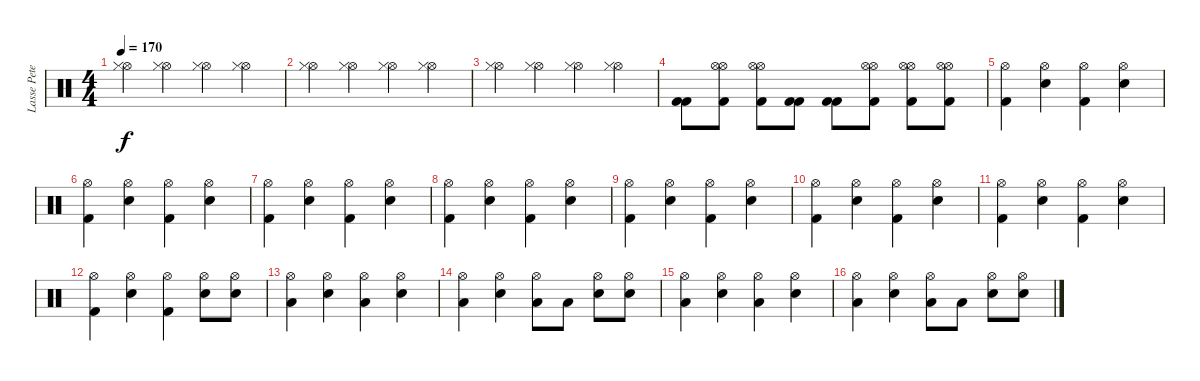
\track ("Lasse Peterson" "Lasse Pete") {instrument percussion}
\staff {score}
\articulation defaults
\ts (4 4)
\tempo 170
\clef neutral
\ks c
("Hi-Hat (open)" "Hi-Hat (closed)").4{dy f} ("Hi-Hat (open)" "Hi-Hat (closed)").4 ("Hi-Hat (open)" "Hi-Hat (closed)").4 ("Hi-Hat (open)" "Hi-Hat (closed)").4 |
("Hi-Hat (open)" "Hi-Hat (closed)").4 ("Hi-Hat (open)" "Hi-Hat (closed)").4 ("Hi-Hat (open)" "Hi-Hat (closed)").4 ("Hi-Hat (open)" "Hi-Hat (closed)").4 |
("Hi-Hat (open)" "Hi-Hat (closed)").4 ("Hi-Hat (open)" "Hi-Hat (closed)").4 ("Hi-Hat (open)" "Hi-Hat (closed)").4 ("Hi-Hat (open)" "Hi-Hat (closed)").4 |
("Kick (hit) 2" "Kick (hit) 2").8 ("Hi-Hat (open)" "Hi-Hat (open)" "Kick (hit) 2").8 ("Hi-Hat (open)" "Hi-Hat (open)" "Kick (hit) 2").8 ("Kick (hit) 2" "Kick (hit) 2").8 ("Kick (hit) 2" "Kick (hit) 2").8 ("Hi-Hat (open)" "Hi-Hat (open)" "Kick (hit) 2").8 ("Hi-Hat (open)" "Hi-Hat (open)" "Kick (hit) 2").8 ("Hi-Hat (open)" "Hi-Hat (open)" "Kick (hit) 2").8 |
("Hi-Hat (open)" "Kick (hit) 2").4 ("Hi-Hat (open)" "Snare (hit) 2").4 ("Hi-Hat (open)" "Kick (hit) 2").4 ("Hi-Hat (open)" "Snare (hit) 2").4 |
("Hi-Hat (open)" "Kick (hit) 2").4 ("Hi-Hat (open)" "Snare (hit) 2").4 ("Hi-Hat (open)" "Kick (hit) 2").4 ("Hi-Hat (open)" "Snare (hit) 2").4 |
("Hi-Hat (open)" "Kick (hit) 2").4 ("Hi-Hat (open)" "Snare (hit) 2").4 ("Hi-Hat (open)" "Kick (hit) 2").4 ("Hi-Hat (open)" "Snare (hit) 2").4 |
("Hi-Hat (open)" "Kick (hit) 2").4 ("Hi-Hat (open)" "Snare (hit) 2").4 ("Hi-Hat (open)" "Kick (hit) 2").4 ("Hi-Hat (open)" "Snare (hit) 2").4 |
("Hi-Hat (open)" "Kick (hit) 2").4 ("Hi-Hat (open)" "Snare (hit) 2").4 ("Hi-Hat (open)" "Kick (hit) 2").4 ("Hi-Hat (open)" "Snare (hit) 2").4 |
("Hi-Hat (open)" "Kick (hit) 2").4 ("Hi-Hat (open)" "Snare (hit) 2").4 ("Hi-Hat (open)" "Kick (hit) 2").4 ("Hi-Hat (open)" "Snare (hit) 2").4 |
("Hi-Hat (open)" "Kick (hit) 2").4 ("Hi-Hat (open)" "Snare (hit) 2").4 ("Hi-Hat (open)" "Kick (hit) 2").4 ("Hi-Hat (open)" "Snare (hit) 2").4 |
("Hi-Hat (open)" "Kick (hit) 2").4 ("Hi-Hat (open)" "Snare (hit) 2").4 ("Hi-Hat (open)" "Kick (hit) 2").4 ("Hi-Hat (open)" "Snare (hit) 2").8 ("Hi-Hat (open)" "Snare (hit) 2").8 |
("Hi-Hat (open)" "Low Floor Tom (hit)").4 ("Hi-Hat (open)" "Snare (hit) 2").4 ("Hi-Hat (open)" "Low Floor Tom (hit)").4 ("Hi-Hat (open)" "Snare (hit) 2").4 |
("Hi-Hat (open)" "Low Floor Tom (hit)").4 ("Hi-Hat (open)" "Snare (hit) 2").4 ("Hi-Hat (open)" "Low Floor Tom (hit)").8 "Low Floor Tom (hit)".8 ("Hi-Hat (open)" "Snare (hit) 2").8 ("Hi-Hat (open)" "Snare (hit) 2").8 |
("Hi-Hat (open)" "Low Floor Tom (hit)").4 ("Hi-Hat (open)" "Snare (hit) 2").4 ("Hi-Hat (open)" "Low Floor Tom (hit)").4 ("Hi-Hat (open)" "Snare (hit) 2").4 |
("Hi-Hat (open)" "Low Floor Tom (hit)").4 ("Hi-Hat (open)" "Snare (hit) 2").4 ("Hi-Hat (open)" "Low Floor Tom (hit)").8 "Low Floor Tom (hit)".8 ("Hi-Hat (open)" "Snare (hit) 2").8 ("Hi-Hat (open)" "Snare (hit) 2").8
